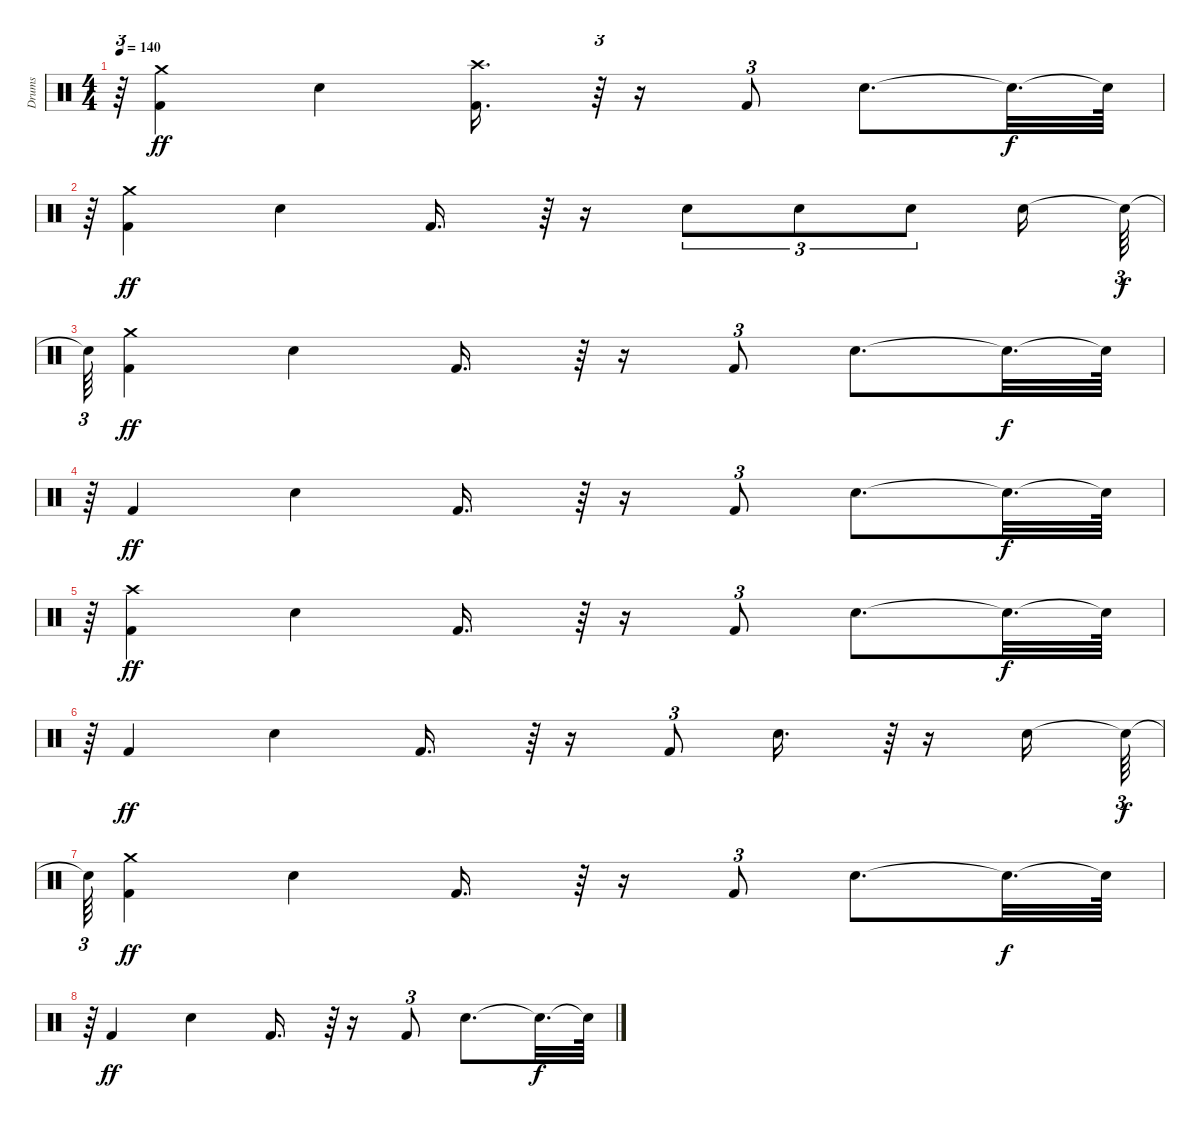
\track ("Drums" "Drums") {instrument percussion}
\staff {score}
\articulation defaults
\ts (4 4)
\tempo 140
\clef neutral
\ks c
r.64{tu (3 2) dy f} ("Kick (hit) 2" "Crash medium (hit)").4{dy ff} "Snare (hit) 2".4 ("Kick (hit) 2" "Crash high (hit)").16{d} r.64{tu (3 2)} r.16 "Kick (hit) 2".8{tu (3 2)} "Snare (hit) 2".8{d} "Snare (hit)"{t}.32{d dy f} "Snare (hit)"{t}.64 |
r.64{tu (3 2)} ("Kick (hit) 2" "Crash medium (hit)").4{dy ff} "Snare (hit) 2".4 "Kick (hit) 2".16{d} r.64{tu (3 2)} r.16 "Snare (hit) 2".8{tu (3 2)} "Snare (hit) 2".8{tu (3 2)} "Snare (hit) 2".8{tu (3 2)} "Snare (hit) 2".16 "Snare (hit)"{t}.64{tu (3 2) dy f} |
"Snare (hit)"{t}.64{tu (3 2)} ("Kick (hit) 2" "Crash medium (hit)").4{dy ff} "Snare (hit) 2".4 "Kick (hit) 2".16{d} r.64{tu (3 2)} r.16 "Kick (hit) 2".8{tu (3 2)} "Snare (hit) 2".8{d} "Snare (hit)"{t}.32{d dy f} "Snare (hit)"{t}.64 |
r.64{tu (3 2)} "Kick (hit) 2".4{dy ff} "Snare (hit) 2".4 "Kick (hit) 2".16{d} r.64{tu (3 2)} r.16 "Kick (hit) 2".8{tu (3 2)} "Snare (hit) 2".8{d} "Snare (hit)"{t}.32{d dy f} "Snare (hit)"{t}.64 |
r.64{tu (3 2)} ("Kick (hit) 2" "Crash high (hit)").4{dy ff} "Snare (hit) 2".4 "Kick (hit) 2".16{d} r.64{tu (3 2)} r.16 "Kick (hit) 2".8{tu (3 2)} "Snare (hit) 2".8{d} "Snare (hit)"{t}.32{d dy f} "Snare (hit)"{t}.64 |
r.64{tu (3 2)} "Kick (hit) 2".4{dy ff} "Snare (hit) 2".4 "Kick (hit) 2".16{d} r.64{tu (3 2)} r.16 "Kick (hit) 2".8{tu (3 2)} "Snare (hit) 2".16{d} r.64{tu (3 2)} r.16 "Snare (hit) 2".16 "Snare (hit)"{t}.64{tu (3 2) dy f} |
"Snare (hit)"{t}.64{tu (3 2)} ("Kick (hit) 2" "Crash medium (hit)").4{dy ff} "Snare (hit) 2".4 "Kick (hit) 2".16{d} r.64{tu (3 2)} r.16 "Kick (hit) 2".8{tu (3 2)} "Snare (hit) 2".8{d} "Snare (hit)"{t}.32{d dy f} "Snare (hit)"{t}.64 |
r.64{tu (3 2)} "Kick (hit) 2".4{dy ff} "Snare (hit) 2".4 "Kick (hit) 2".16{d} r.64{tu (3 2)} r.16 "Kick (hit) 2".8{tu (3 2)} "Snare (hit) 2".8{d} "Snare (hit)"{t}.32{d dy f} "Snare (hit)"{t}.64
